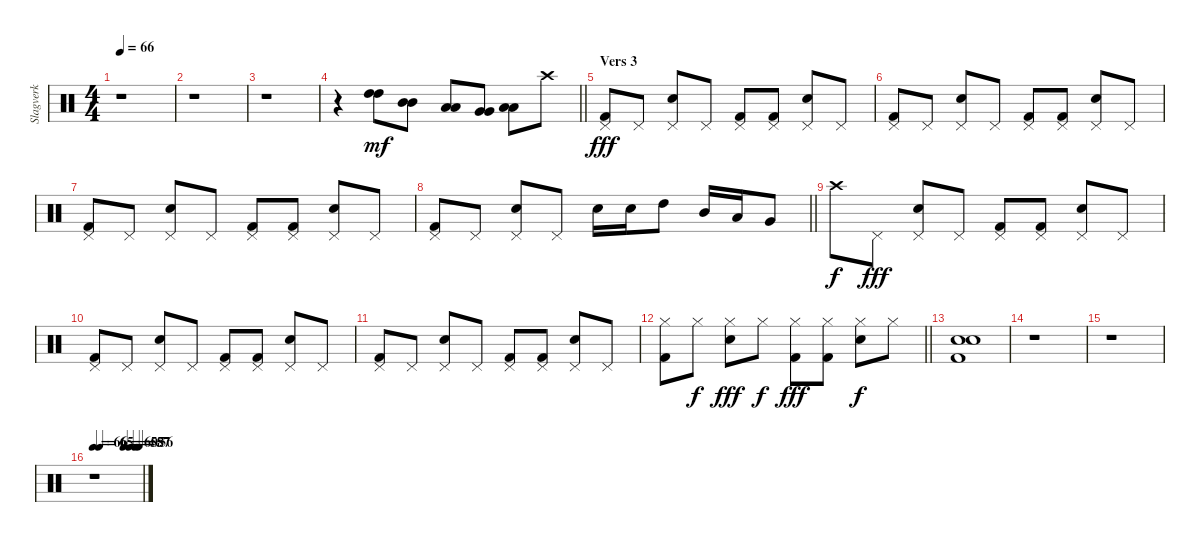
\track ("Slagverk" "Slagverk") {instrument percussion}
\staff {score}
\articulation defaults
\ts (4 4)
\tempo 66
\clef neutral
\ks c
r.1{dy f} |
r.1 |
r.1 |
\barLineRight lightlight
r.4 ("High Tom (hit)" "High Tom (hit)").8{dy mf} ("Mid Tom (hit)" "Mid Tom (hit)").8 ("Low Tom (hit)" "Low Tom (hit)").8 ("Very Low Tom (hit)" "Very Low Tom (hit)").8 ("Low Floor Tom (hit)" "Low Floor Tom (hit)").8 "Crash high (hit)".8 |
\section ("" "Vers 3")
("Pedal Hi-Hat (hit)" "Kick (hit) 2").8{dy fff} "Pedal Hi-Hat (hit)".8 ("Pedal Hi-Hat (hit)" "Snare (hit) 2").8 "Pedal Hi-Hat (hit)".8 ("Pedal Hi-Hat (hit)" "Kick (hit) 2").8 ("Pedal Hi-Hat (hit)" "Kick (hit) 2").8 ("Pedal Hi-Hat (hit)" "Snare (hit) 2").8 "Pedal Hi-Hat (hit)".8 |
("Pedal Hi-Hat (hit)" "Kick (hit) 2").8 "Pedal Hi-Hat (hit)".8 ("Pedal Hi-Hat (hit)" "Snare (hit) 2").8 "Pedal Hi-Hat (hit)".8 ("Pedal Hi-Hat (hit)" "Kick (hit) 2").8 ("Pedal Hi-Hat (hit)" "Kick (hit) 2").8 ("Pedal Hi-Hat (hit)" "Snare (hit) 2").8 "Pedal Hi-Hat (hit)".8 |
("Pedal Hi-Hat (hit)" "Kick (hit) 2").8 "Pedal Hi-Hat (hit)".8 ("Pedal Hi-Hat (hit)" "Snare (hit) 2").8 "Pedal Hi-Hat (hit)".8 ("Pedal Hi-Hat (hit)" "Kick (hit) 2").8 ("Pedal Hi-Hat (hit)" "Kick (hit) 2").8 ("Pedal Hi-Hat (hit)" "Snare (hit) 2").8 "Pedal Hi-Hat (hit)".8 |
\barLineRight lightlight
("Pedal Hi-Hat (hit)" "Kick (hit) 2").8 "Pedal Hi-Hat (hit)".8 ("Pedal Hi-Hat (hit)" "Snare (hit) 2").8 "Pedal Hi-Hat (hit)".8 "Snare (hit) 2".16 "Snare (hit) 2".16 "High Tom (hit)".8 "Mid Tom (hit)".16 "Low Tom (hit)".16 "Very Low Tom (hit)".8 |
"Crash high (hit)".8{dy f} "Pedal Hi-Hat (hit)".8{dy fff} ("Pedal Hi-Hat (hit)" "Snare (hit) 2").8 "Pedal Hi-Hat (hit)".8 ("Pedal Hi-Hat (hit)" "Kick (hit) 2").8 ("Pedal Hi-Hat (hit)" "Kick (hit) 2").8 ("Pedal Hi-Hat (hit)" "Snare (hit) 2").8 "Pedal Hi-Hat (hit)".8 |
("Pedal Hi-Hat (hit)" "Kick (hit) 2").8 "Pedal Hi-Hat (hit)".8 ("Pedal Hi-Hat (hit)" "Snare (hit) 2").8 "Pedal Hi-Hat (hit)".8 ("Pedal Hi-Hat (hit)" "Kick (hit) 2").8 ("Pedal Hi-Hat (hit)" "Kick (hit) 2").8 ("Pedal Hi-Hat (hit)" "Snare (hit) 2").8 "Pedal Hi-Hat (hit)".8 |
("Pedal Hi-Hat (hit)" "Kick (hit) 2").8 "Pedal Hi-Hat (hit)".8 ("Pedal Hi-Hat (hit)" "Snare (hit) 2").8 "Pedal Hi-Hat (hit)".8 ("Pedal Hi-Hat (hit)" "Kick (hit) 2").8 ("Pedal Hi-Hat (hit)" "Kick (hit) 2").8 ("Pedal Hi-Hat (hit)" "Snare (hit) 2").8 "Pedal Hi-Hat (hit)".8 |
\barLineRight lightlight
("Hi-Hat (closed)" "Kick (hit) 2").8 "Hi-Hat (closed)".8{dy f} ("Hi-Hat (closed)" "Snare (hit) 2").8{dy fff} "Hi-Hat (closed)".8{dy f} ("Hi-Hat (closed)" "Kick (hit) 2").8{dy fff} ("Hi-Hat (closed)" "Kick (hit) 2").8 ("Hi-Hat (closed)" "Snare (hit) 2").8{dy f} "Hi-Hat (closed)".8 |
("Snare (hit) 2" "Snare (hit) 2" "Kick (hit) 2").1 |
r.1 |
r.1 |
\tempo 66
\tempo (65 0.125)
\tempo (60 0.625)
\tempo (58 0.75)
\tempo (57 0.875)
\tempo (56 0.9375)
r.1
